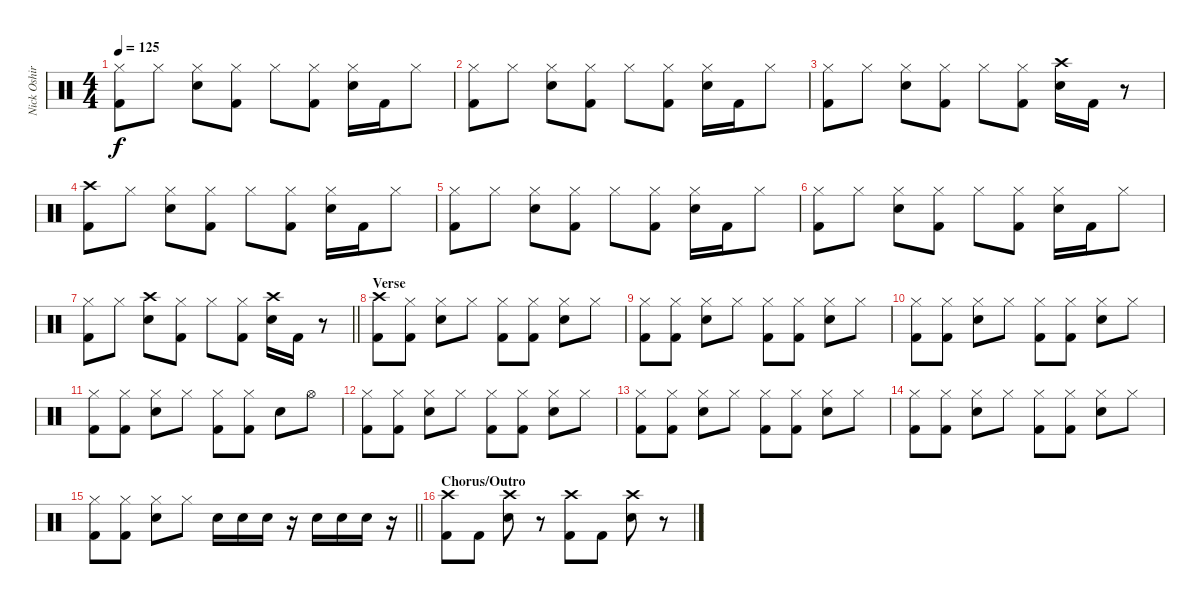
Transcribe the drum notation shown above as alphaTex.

\track ("Nick Oshiro" "Nick Oshir") {instrument percussion}
\staff {score}
\articulation defaults
\ts (4 4)
\tempo 125
\clef neutral
\ks c
("Hi-Hat (closed)" "Kick (hit) 2").8{dy f} "Hi-Hat (closed)".8 ("Hi-Hat (closed)" "Electric Snare (hit)").8 ("Hi-Hat (closed)" "Kick (hit) 2").8 "Hi-Hat (closed)".8 ("Hi-Hat (closed)" "Kick (hit) 2").8 ("Hi-Hat (closed)" "Electric Snare (hit)").16 "Kick (hit) 2".16 "Hi-Hat (closed)".8 |
("Hi-Hat (closed)" "Kick (hit) 2").8 "Hi-Hat (closed)".8 ("Hi-Hat (closed)" "Electric Snare (hit)").8 ("Hi-Hat (closed)" "Kick (hit) 2").8 "Hi-Hat (closed)".8 ("Hi-Hat (closed)" "Kick (hit) 2").8 ("Hi-Hat (closed)" "Electric Snare (hit)").16 "Kick (hit) 2".16 "Hi-Hat (closed)".8 |
("Hi-Hat (closed)" "Kick (hit) 2").8 "Hi-Hat (closed)".8 ("Hi-Hat (closed)" "Electric Snare (hit)").8 ("Hi-Hat (closed)" "Kick (hit) 2").8 "Hi-Hat (closed)".8 ("Hi-Hat (closed)" "Kick (hit) 2").8 ("Crash high (hit)" "Electric Snare (hit)").16 "Kick (hit) 2".16 r.8 |
("Crash high (hit)" "Kick (hit) 2").8 "Hi-Hat (closed)".8 ("Hi-Hat (closed)" "Electric Snare (hit)").8 ("Hi-Hat (closed)" "Kick (hit) 2").8 "Hi-Hat (closed)".8 ("Hi-Hat (closed)" "Kick (hit) 2").8 ("Hi-Hat (closed)" "Electric Snare (hit)").16 "Kick (hit) 2".16 "Hi-Hat (closed)".8 |
("Hi-Hat (closed)" "Kick (hit) 2").8 "Hi-Hat (closed)".8 ("Hi-Hat (closed)" "Electric Snare (hit)").8 ("Hi-Hat (closed)" "Kick (hit) 2").8 "Hi-Hat (closed)".8 ("Hi-Hat (closed)" "Kick (hit) 2").8 ("Hi-Hat (closed)" "Electric Snare (hit)").16 "Kick (hit) 2".16 "Hi-Hat (closed)".8 |
("Hi-Hat (closed)" "Kick (hit) 2").8 "Hi-Hat (closed)".8 ("Hi-Hat (closed)" "Electric Snare (hit)").8 ("Hi-Hat (closed)" "Kick (hit) 2").8 "Hi-Hat (closed)".8 ("Hi-Hat (closed)" "Kick (hit) 2").8 ("Hi-Hat (closed)" "Electric Snare (hit)").16 "Kick (hit) 2".16 "Hi-Hat (closed)".8 |
\barLineRight lightlight
("Hi-Hat (closed)" "Kick (hit) 2").8 "Hi-Hat (closed)".8 ("Crash high (hit)" "Electric Snare (hit)").8 ("Hi-Hat (closed)" "Kick (hit) 2").8 "Hi-Hat (closed)".8 ("Hi-Hat (closed)" "Kick (hit) 2").8 ("Crash high (hit)" "Electric Snare (hit)").16 "Kick (hit) 2".16 r.8 |
\section ("" "Verse")
("Crash high (hit)" "Kick (hit) 2").8{volume 16} ("Hi-Hat (closed)" "Kick (hit) 2").8 ("Hi-Hat (closed)" "Electric Snare (hit)").8 "Hi-Hat (closed)".8 ("Hi-Hat (closed)" "Kick (hit) 2").8 ("Hi-Hat (closed)" "Kick (hit) 2").8 ("Hi-Hat (closed)" "Electric Snare (hit)").8 "Hi-Hat (closed)".8 |
("Hi-Hat (closed)" "Kick (hit) 2").8 ("Hi-Hat (closed)" "Kick (hit) 2").8 ("Hi-Hat (closed)" "Electric Snare (hit)").8 "Hi-Hat (closed)".8 ("Hi-Hat (closed)" "Kick (hit) 2").8 ("Hi-Hat (closed)" "Kick (hit) 2").8 ("Hi-Hat (closed)" "Electric Snare (hit)").8 "Hi-Hat (closed)".8 |
("Hi-Hat (closed)" "Kick (hit) 2").8 ("Hi-Hat (closed)" "Kick (hit) 2").8 ("Hi-Hat (closed)" "Electric Snare (hit)").8 "Hi-Hat (closed)".8 ("Hi-Hat (closed)" "Kick (hit) 2").8 ("Hi-Hat (closed)" "Kick (hit) 2").8 ("Hi-Hat (closed)" "Electric Snare (hit)").8 "Hi-Hat (closed)".8 |
("Hi-Hat (closed)" "Kick (hit) 2").8 ("Hi-Hat (closed)" "Kick (hit) 2").8 ("Hi-Hat (closed)" "Electric Snare (hit)").8 "Hi-Hat (closed)".8 ("Hi-Hat (closed)" "Kick (hit) 2").8 ("Hi-Hat (closed)" "Kick (hit) 2").8 "Electric Snare (hit)".8 "Hi-Hat (open)".8 |
("Hi-Hat (closed)" "Kick (hit) 2").8 ("Hi-Hat (closed)" "Kick (hit) 2").8 ("Hi-Hat (closed)" "Electric Snare (hit)").8 "Hi-Hat (closed)".8 ("Hi-Hat (closed)" "Kick (hit) 2").8 ("Hi-Hat (closed)" "Kick (hit) 2").8 ("Hi-Hat (closed)" "Electric Snare (hit)").8 "Hi-Hat (closed)".8 |
("Hi-Hat (closed)" "Kick (hit) 2").8 ("Hi-Hat (closed)" "Kick (hit) 2").8 ("Hi-Hat (closed)" "Electric Snare (hit)").8 "Hi-Hat (closed)".8 ("Hi-Hat (closed)" "Kick (hit) 2").8 ("Hi-Hat (closed)" "Kick (hit) 2").8 ("Hi-Hat (closed)" "Electric Snare (hit)").8 "Hi-Hat (closed)".8 |
("Hi-Hat (closed)" "Kick (hit) 2").8 ("Hi-Hat (closed)" "Kick (hit) 2").8 ("Hi-Hat (closed)" "Electric Snare (hit)").8 "Hi-Hat (closed)".8 ("Hi-Hat (closed)" "Kick (hit) 2").8 ("Hi-Hat (closed)" "Kick (hit) 2").8 ("Hi-Hat (closed)" "Electric Snare (hit)").8 "Hi-Hat (closed)".8 |
\barLineRight lightlight
("Hi-Hat (closed)" "Kick (hit) 2").8 ("Hi-Hat (closed)" "Kick (hit) 2").8 ("Hi-Hat (closed)" "Electric Snare (hit)").8 "Hi-Hat (closed)".8 "Electric Snare (hit)".16 "Electric Snare (hit)".16 "Electric Snare (hit)".16 r.16 "Electric Snare (hit)".16 "Electric Snare (hit)".16 "Electric Snare (hit)".16 r.16 |
\section ("" "Chorus/Outro")
("Crash high (hit)" "Kick (hit) 2").8 "Kick (hit) 2".8 ("Crash high (hit)" "Electric Snare (hit)").8 r.8 ("Crash high (hit)" "Kick (hit) 2").8 "Kick (hit) 2".8 ("Crash high (hit)" "Electric Snare (hit)").8 r.8
